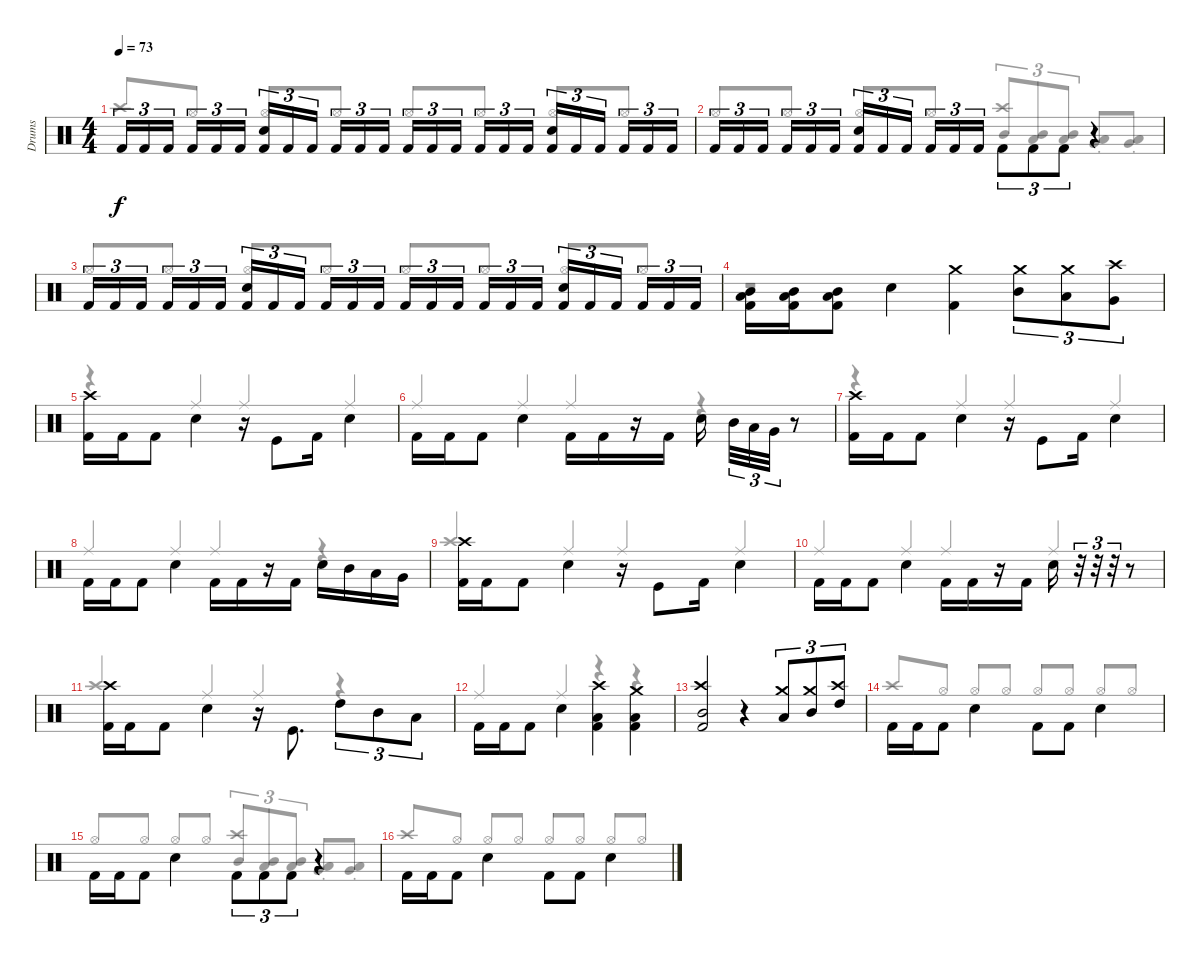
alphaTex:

\track ("Drums" "Drums") {instrument percussion}
\staff {score}
\articulation defaults
\voice
\ts (4 4)
\tempo 73
\clef neutral
\ks c "Kick (hit) 2".16{tu (3 2) dy f} "Kick (hit) 2".16{tu (3 2)} "Kick (hit) 2".16{tu (3 2) beam splitsecondary} "Kick (hit) 2".16{tu (3 2)} "Kick (hit) 2".16{tu (3 2)} "Kick (hit) 2".16{tu (3 2)}
("Kick (hit) 2" "Snare (hit) 2").16{tu (3 2)} "Kick (hit) 2".16{tu (3 2)} "Kick (hit) 2".16{tu (3 2) beam splitsecondary} "Kick (hit) 2".16{tu (3 2)} "Kick (hit) 2".16{tu (3 2)} "Kick (hit) 2".16{tu (3 2)} "Kick (hit) 2".16{tu (3 2)} "Kick (hit) 2".16{tu (3 2)} "Kick (hit) 2".16{tu (3 2) beam splitsecondary} "Kick (hit) 2".16{tu (3 2)} "Kick (hit) 2".16{tu (3 2)} "Kick (hit) 2".16{tu (3 2)} ("Kick (hit) 2" "Snare (hit) 2").16{tu (3 2)} "Kick (hit) 2".16{tu (3 2)} "Kick (hit) 2".16{tu (3 2) beam splitsecondary} "Kick (hit) 2".16{tu (3 2)} "Kick (hit) 2".16{tu (3 2)} "Kick (hit) 2".16{tu (3 2)} |
"Kick (hit) 2".16{tu (3 2)} "Kick (hit) 2".16{tu (3 2)} "Kick (hit) 2".16{tu (3 2) beam splitsecondary} "Kick (hit) 2".16{tu (3 2)} "Kick (hit) 2".16{tu (3 2)} "Kick (hit) 2".16{tu (3 2)} ("Kick (hit) 2" "Snare (hit) 2").16{tu (3 2)} "Kick (hit) 2".16{tu (3 2)} "Kick (hit) 2".16{tu (3 2) beam splitsecondary} "Kick (hit) 2".16{tu (3 2)} "Kick (hit) 2".16{tu (3 2)} "Kick (hit) 2".16{tu (3 2)} "Kick (hit) 2".8{tu (3 2) beam Down} "Kick (hit) 2".8{tu (3 2) beam Down} "Kick (hit) 2".8{tu (3 2) beam Down} r.4 |
"Kick (hit) 2".16{tu (3 2)} "Kick (hit) 2".16{tu (3 2)} "Kick (hit) 2".16{tu (3 2) beam splitsecondary} "Kick (hit) 2".16{tu (3 2)} "Kick (hit) 2".16{tu (3 2)} "Kick (hit) 2".16{tu (3 2)} ("Kick (hit) 2" "Snare (hit) 2").16{tu (3 2)} "Kick (hit) 2".16{tu (3 2)} "Kick (hit) 2".16{tu (3 2) beam splitsecondary} "Kick (hit) 2".16{tu (3 2)} "Kick (hit) 2".16{tu (3 2)} "Kick (hit) 2".16{tu (3 2)} "Kick (hit) 2".16{tu (3 2)} "Kick (hit) 2".16{tu (3 2)} "Kick (hit) 2".16{tu (3 2) beam splitsecondary} "Kick (hit) 2".16{tu (3 2)} "Kick (hit) 2".16{tu (3 2)} "Kick (hit) 2".16{tu (3 2)} ("Kick (hit) 2" "Snare (hit) 2").16{tu (3 2)} "Kick (hit) 2".16{tu (3 2)} "Kick (hit) 2".16{tu (3 2) beam splitsecondary} "Kick (hit) 2".16{tu (3 2)} "Kick (hit) 2".16{tu (3 2)} "Kick (hit) 2".16{tu (3 2)} |
("Kick (hit) 2" "Mid Tom (hit)" "Low Tom (hit)").16{beam Down} ("Kick (hit) 2" "Mid Tom (hit)" "Low Tom (hit)").16{beam Down} ("Kick (hit) 2" "Mid Tom (hit)" "Low Tom (hit)").8{beam Down} "Snare (hit) 2".4{beam Down} ("Crash medium (hit)" "Kick (hit) 2").4{beam Down} ("Mid Tom (hit)" "Crash medium (hit)").8{tu (3 2) beam Down} ("Low Tom (hit)" "Crash medium (hit)").8{tu (3 2) beam Down} ("Very Low Tom (hit)" "Crash high (hit)").8{tu (3 2) beam Down} |
("Kick (hit) 2" "Crash high (hit)").16{beam Down} "Kick (hit) 2".16{beam Down} "Kick (hit) 2".8{beam Down} "Snare (hit) 2".4{beam Down} r.16 "Kick (hit)".8{beam Down} "Kick (hit) 2".16{beam Down} "Snare (hit) 2".4{beam Down} |
"Kick (hit) 2".16{beam Down} "Kick (hit) 2".16{beam Down} "Kick (hit) 2".8{beam Down} "Snare (hit) 2".4{beam Down} "Kick (hit) 2".16{beam Down} "Kick (hit) 2".16{beam Down} r.16 "Kick (hit) 2".16{beam Down} "Snare (hit) 2".16{beam Down beam splitsecondary} "Mid Tom (hit)".32{tu (3 2) beam Down} "Low Tom (hit)".32{tu (3 2) beam Down} "Very Low Tom (hit)".32{tu (3 2) beam Down} r.8 |
("Kick (hit) 2" "Crash high (hit)").16{beam Down} "Kick (hit) 2".16{beam Down} "Kick (hit) 2".8{beam Down} "Snare (hit) 2".4{beam Down} r.16 "Kick (hit)".8{beam Down} "Kick (hit) 2".16{beam Down} "Snare (hit) 2".4{beam Down} |
"Kick (hit) 2".16{beam Down} "Kick (hit) 2".16{beam Down} "Kick (hit) 2".8{beam Down} "Snare (hit) 2".4{beam Down} "Kick (hit) 2".16{beam Down} "Kick (hit) 2".16{beam Down} r.16 "Kick (hit) 2".16{beam Down} "Snare (hit) 2".16{beam Down} "Mid Tom (hit)".16{beam Down} "Low Tom (hit)".16{beam Down} "Very Low Tom (hit)".16{beam Down} |
("Kick (hit) 2" "Crash high (hit)").16{beam Down} "Kick (hit) 2".16{beam Down} "Kick (hit) 2".8{beam Down} "Snare (hit) 2".4{beam Down} r.16 "Kick (hit)".8{beam Down} "Kick (hit) 2".16{beam Down} "Snare (hit) 2".4{beam Down} |
"Kick (hit) 2".16{beam Down} "Kick (hit) 2".16{beam Down} "Kick (hit) 2".8{beam Down} "Snare (hit) 2".4{beam Down} "Kick (hit) 2".16{beam Down} "Kick (hit) 2".16{beam Down} r.16 "Kick (hit) 2".16{beam Down} "Snare (hit) 2".16{beam Down} r.32{tu (3 2)} r.32{tu (3 2)} r.32{tu (3 2)} r.8 |
("Kick (hit) 2" "Crash high (hit)").16{beam Down} "Kick (hit) 2".16{beam Down} "Kick (hit) 2".8{beam Down} "Snare (hit) 2".4{beam Down} r.16 "Kick (hit)".8{d beam Down} "High Tom (hit)".8{tu (3 2) beam Down} "Mid Tom (hit)".8{tu (3 2) beam Down} "Low Tom (hit)".8{tu (3 2) beam Down} |
"Kick (hit) 2".16{beam Down} "Kick (hit) 2".16{beam Down} "Kick (hit) 2".8{beam Down} "Snare (hit) 2".4{beam Down} ("Low Tom (hit)" "Crash high (hit)" "Kick (hit) 2").4{beam Down} ("Kick (hit) 2" "Low Tom (hit)" "Crash medium (hit)").4{beam Down} |
("Kick (hit) 2" "Mid Tom (hit)" "Crash high (hit)").2{beam Up} r.4 ("Low Tom (hit)" "Crash medium (hit)").8{tu (3 2) beam Up} ("Mid Tom (hit)" "Crash medium (hit)").8{tu (3 2) beam Up} ("High Tom (hit)" "Crash high (hit)").8{tu (3 2) beam Up} |
"Kick (hit) 2".16{beam Down} "Kick (hit) 2".16{beam Down} "Kick (hit) 2".8{beam Down} "Snare (hit) 2".4{beam Down} "Kick (hit) 2".8{beam Down} "Kick (hit) 2".8{beam Down} "Snare (hit) 2".4{beam Down} |
"Kick (hit) 2".16{beam Down} "Kick (hit) 2".16{beam Down} "Kick (hit) 2".8{beam Down} "Snare (hit) 2".4{beam Down} "Kick (hit) 2".8{tu (3 2) beam Down} "Kick (hit) 2".8{tu (3 2) beam Down} "Kick (hit) 2".8{tu (3 2) beam Down} r.4 |
"Kick (hit) 2".16{beam Down} "Kick (hit) 2".16{beam Down} "Kick (hit) 2".8{beam Down} "Snare (hit) 2".4{beam Down} "Kick (hit) 2".8{beam Down} "Kick (hit) 2".8{beam Down} "Snare (hit) 2".4{beam Down}
\voice
\clef neutral
\ottava regular
\simile none
\ks c "Crash high (hit)".8{dy f beam Up} "Hi-Hat (open)".8{beam Up} "Hi-Hat (open)".8{beam Up} "Hi-Hat (open)".8{beam Up} "Hi-Hat (open)".8{beam Up} "Hi-Hat (open)".8{beam Up} "Hi-Hat (open)".8{beam Up} "Hi-Hat (open)".8{beam Up}
|
"Hi-Hat (open)".8{beam Up} "Hi-Hat (open)".8{beam Up} "Hi-Hat (open)".8{beam Up} "Hi-Hat (open)".8{beam Up} ("Crash high (hit)" "Mid Tom (hit)").8{tu (3 2) beam Up} ("Mid Tom (hit)" "Low Tom (hit)").8{tu (3 2) beam Up} ("Mid Tom (hit)" "Low Tom (hit)").8{tu (3 2) beam Up} ("Very Low Tom (hit)"{st} "Low Tom (hit)"{st}).8{beam Up} ("Low Tom (hit)"{st} "Very Low Tom (hit)"{st}).8{beam Up} |
"Hi-Hat (open)".8{beam Up} "Hi-Hat (open)".8{beam Up} "Hi-Hat (open)".8{beam Up} "Hi-Hat (open)".8{beam Up} "Hi-Hat (open)".8{beam Up} "Hi-Hat (open)".8{beam Up} "Hi-Hat (open)".8{beam Up} "Hi-Hat (open)".8{beam Up} |
r.1 |
r.4 "Ride (middle)".4{beam Up} "Ride (middle)".4{beam Up} "Ride (middle)".4{beam Up} |
"Ride (middle)".4{beam Up} "Ride (middle)".4{beam Up} "Ride (middle)".4{beam Up} r.4 |
r.4 "Ride (middle)".4{beam Up} "Ride (middle)".4{beam Up} "Ride (middle)".4{beam Up} |
"Ride (middle)".4{beam Up} "Ride (middle)".4{beam Up} "Ride (middle)".4{beam Up} r.4 |
"Crash high (hit)".4{beam Up} "Ride (middle)".4{beam Up} "Ride (middle)".4{beam Up} "Ride (middle)".4{beam Up} |
"Ride (middle)".4{beam Up} "Ride (middle)".4{beam Up} "Ride (middle)".4{beam Up} "Ride (middle)".4{beam Up} |
"Crash high (hit)".4{beam Up} "Ride (middle)".4{beam Up} "Ride (middle)".4{beam Up} r.4 |
"Ride (middle)".4{beam Up} "Ride (middle)".4{beam Up} r.4 r.4 |
|
"Crash high (hit)".8{beam Up} "Hi-Hat (open)".8{beam Up} "Hi-Hat (open)".8{beam Up} "Hi-Hat (open)".8{beam Up} "Hi-Hat (open)".8{beam Up} "Hi-Hat (open)".8{beam Up} "Hi-Hat (open)".8{beam Up} "Hi-Hat (open)".8{beam Up} |
"Hi-Hat (open)".8{beam Up} "Hi-Hat (open)".8{beam Up} "Hi-Hat (open)".8{beam Up} "Hi-Hat (open)".8{beam Up} ("Crash high (hit)" "Mid Tom (hit)").8{tu (3 2) beam Up} ("Mid Tom (hit)" "Low Tom (hit)").8{tu (3 2) beam Up} ("Mid Tom (hit)" "Low Tom (hit)").8{tu (3 2) beam Up} ("Very Low Tom (hit)"{st} "Low Tom (hit)"{st}).8{beam Up} ("Low Tom (hit)"{st} "Very Low Tom (hit)"{st}).8{beam Up} |
"Crash high (hit)".8{beam Up} "Hi-Hat (open)".8{beam Up} "Hi-Hat (open)".8{beam Up} "Hi-Hat (open)".8{beam Up} "Hi-Hat (open)".8{beam Up} "Hi-Hat (open)".8{beam Up} "Hi-Hat (open)".8{beam Up} "Hi-Hat (open)".8{beam Up}
